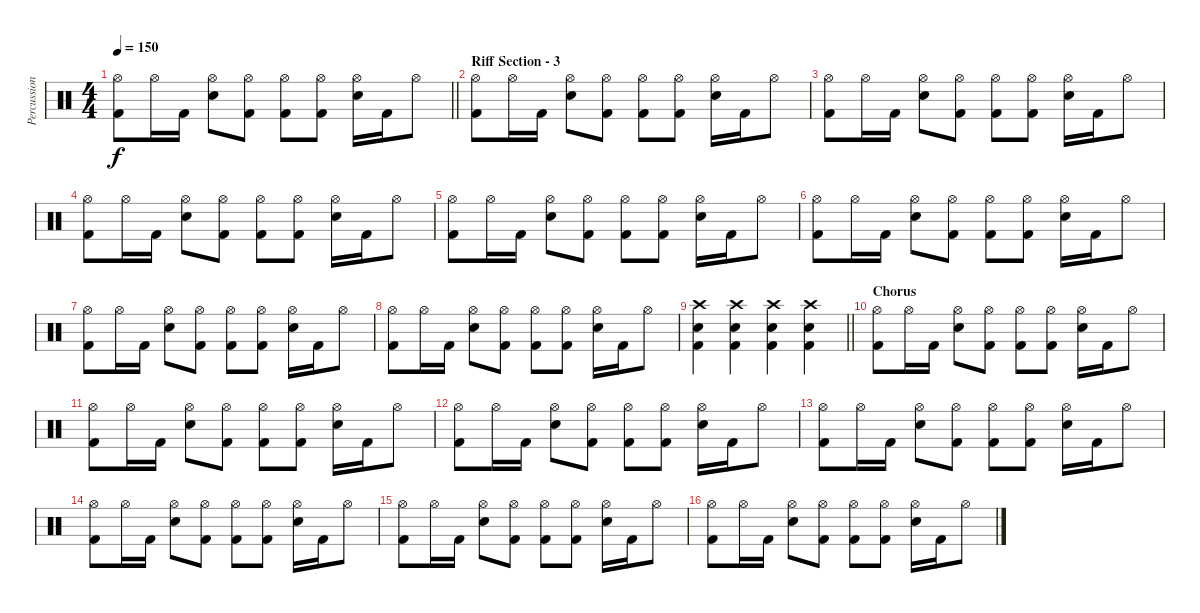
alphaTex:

\track ("Percussion" "Percussion") {instrument percussion}
\staff {score}
\articulation defaults
\ts (4 4)
\tempo 150
\clef neutral
\barLineRight lightlight
\ks c
("Hi-Hat (open)" "Kick (hit) 2").8{dy f} "Hi-Hat (open)".16 "Kick (hit) 2".16 ("Hi-Hat (open)" "Snare (hit) 2").8 ("Hi-Hat (open)" "Kick (hit) 2").8 ("Hi-Hat (open)" "Kick (hit) 2").8 ("Hi-Hat (open)" "Kick (hit) 2").8 ("Hi-Hat (open)" "Snare (hit) 2").16 "Kick (hit) 2".16 "Hi-Hat (open)".8 |
\section ("" "Riff Section - 3")
("Hi-Hat (open)" "Kick (hit) 2").8 "Hi-Hat (open)".16 "Kick (hit) 2".16 ("Hi-Hat (open)" "Snare (hit) 2").8 ("Hi-Hat (open)" "Kick (hit) 2").8 ("Hi-Hat (open)" "Kick (hit) 2").8 ("Hi-Hat (open)" "Kick (hit) 2").8 ("Hi-Hat (open)" "Snare (hit) 2").16 "Kick (hit) 2".16 "Hi-Hat (open)".8 |
("Hi-Hat (open)" "Kick (hit) 2").8 "Hi-Hat (open)".16 "Kick (hit) 2".16 ("Hi-Hat (open)" "Snare (hit) 2").8 ("Hi-Hat (open)" "Kick (hit) 2").8 ("Hi-Hat (open)" "Kick (hit) 2").8 ("Hi-Hat (open)" "Kick (hit) 2").8 ("Hi-Hat (open)" "Snare (hit) 2").16 "Kick (hit) 2".16 "Hi-Hat (open)".8 |
("Hi-Hat (open)" "Kick (hit) 2").8 "Hi-Hat (open)".16 "Kick (hit) 2".16 ("Hi-Hat (open)" "Snare (hit) 2").8 ("Hi-Hat (open)" "Kick (hit) 2").8 ("Hi-Hat (open)" "Kick (hit) 2").8 ("Hi-Hat (open)" "Kick (hit) 2").8 ("Hi-Hat (open)" "Snare (hit) 2").16 "Kick (hit) 2".16 "Hi-Hat (open)".8 |
("Hi-Hat (open)" "Kick (hit) 2").8 "Hi-Hat (open)".16 "Kick (hit) 2".16 ("Hi-Hat (open)" "Snare (hit) 2").8 ("Hi-Hat (open)" "Kick (hit) 2").8 ("Hi-Hat (open)" "Kick (hit) 2").8 ("Hi-Hat (open)" "Kick (hit) 2").8 ("Hi-Hat (open)" "Snare (hit) 2").16 "Kick (hit) 2".16 "Hi-Hat (open)".8 |
("Hi-Hat (open)" "Kick (hit) 2").8 "Hi-Hat (open)".16 "Kick (hit) 2".16 ("Hi-Hat (open)" "Snare (hit) 2").8 ("Hi-Hat (open)" "Kick (hit) 2").8 ("Hi-Hat (open)" "Kick (hit) 2").8 ("Hi-Hat (open)" "Kick (hit) 2").8 ("Hi-Hat (open)" "Snare (hit) 2").16 "Kick (hit) 2".16 "Hi-Hat (open)".8 |
("Hi-Hat (open)" "Kick (hit) 2").8 "Hi-Hat (open)".16 "Kick (hit) 2".16 ("Hi-Hat (open)" "Snare (hit) 2").8 ("Hi-Hat (open)" "Kick (hit) 2").8 ("Hi-Hat (open)" "Kick (hit) 2").8 ("Hi-Hat (open)" "Kick (hit) 2").8 ("Hi-Hat (open)" "Snare (hit) 2").16 "Kick (hit) 2".16 "Hi-Hat (open)".8 |
("Hi-Hat (open)" "Kick (hit) 2").8 "Hi-Hat (open)".16 "Kick (hit) 2".16 ("Hi-Hat (open)" "Snare (hit) 2").8 ("Hi-Hat (open)" "Kick (hit) 2").8 ("Hi-Hat (open)" "Kick (hit) 2").8 ("Hi-Hat (open)" "Kick (hit) 2").8 ("Hi-Hat (open)" "Snare (hit) 2").16 "Kick (hit) 2".16 "Hi-Hat (open)".8 |
\barLineRight lightlight
("Crash high (hit)" "Snare (hit) 2" "Kick (hit) 2").4 ("Crash high (hit)" "Snare (hit) 2" "Kick (hit) 2").4 ("Crash high (hit)" "Snare (hit) 2" "Kick (hit) 2").4 ("Crash high (hit)" "Snare (hit) 2" "Kick (hit) 2").4 |
\section ("" "Chorus")
("Hi-Hat (open)" "Kick (hit) 2").8 "Hi-Hat (open)".16 "Kick (hit) 2".16 ("Hi-Hat (open)" "Snare (hit) 2").8 ("Hi-Hat (open)" "Kick (hit) 2").8 ("Hi-Hat (open)" "Kick (hit) 2").8 ("Hi-Hat (open)" "Kick (hit) 2").8 ("Hi-Hat (open)" "Snare (hit) 2").16 "Kick (hit) 2".16 "Hi-Hat (open)".8 |
("Hi-Hat (open)" "Kick (hit) 2").8 "Hi-Hat (open)".16 "Kick (hit) 2".16 ("Hi-Hat (open)" "Snare (hit) 2").8 ("Hi-Hat (open)" "Kick (hit) 2").8 ("Hi-Hat (open)" "Kick (hit) 2").8 ("Hi-Hat (open)" "Kick (hit) 2").8 ("Hi-Hat (open)" "Snare (hit) 2").16 "Kick (hit) 2".16 "Hi-Hat (open)".8 |
("Hi-Hat (open)" "Kick (hit) 2").8 "Hi-Hat (open)".16 "Kick (hit) 2".16 ("Hi-Hat (open)" "Snare (hit) 2").8 ("Hi-Hat (open)" "Kick (hit) 2").8 ("Hi-Hat (open)" "Kick (hit) 2").8 ("Hi-Hat (open)" "Kick (hit) 2").8 ("Hi-Hat (open)" "Snare (hit) 2").16 "Kick (hit) 2".16 "Hi-Hat (open)".8 |
("Hi-Hat (open)" "Kick (hit) 2").8 "Hi-Hat (open)".16 "Kick (hit) 2".16 ("Hi-Hat (open)" "Snare (hit) 2").8 ("Hi-Hat (open)" "Kick (hit) 2").8 ("Hi-Hat (open)" "Kick (hit) 2").8 ("Hi-Hat (open)" "Kick (hit) 2").8 ("Hi-Hat (open)" "Snare (hit) 2").16 "Kick (hit) 2".16 "Hi-Hat (open)".8 |
("Hi-Hat (open)" "Kick (hit) 2").8 "Hi-Hat (open)".16 "Kick (hit) 2".16 ("Hi-Hat (open)" "Snare (hit) 2").8 ("Hi-Hat (open)" "Kick (hit) 2").8 ("Hi-Hat (open)" "Kick (hit) 2").8 ("Hi-Hat (open)" "Kick (hit) 2").8 ("Hi-Hat (open)" "Snare (hit) 2").16 "Kick (hit) 2".16 "Hi-Hat (open)".8 |
("Hi-Hat (open)" "Kick (hit) 2").8 "Hi-Hat (open)".16 "Kick (hit) 2".16 ("Hi-Hat (open)" "Snare (hit) 2").8 ("Hi-Hat (open)" "Kick (hit) 2").8 ("Hi-Hat (open)" "Kick (hit) 2").8 ("Hi-Hat (open)" "Kick (hit) 2").8 ("Hi-Hat (open)" "Snare (hit) 2").16 "Kick (hit) 2".16 "Hi-Hat (open)".8 |
("Hi-Hat (open)" "Kick (hit) 2").8 "Hi-Hat (open)".16 "Kick (hit) 2".16 ("Hi-Hat (open)" "Snare (hit) 2").8 ("Hi-Hat (open)" "Kick (hit) 2").8 ("Hi-Hat (open)" "Kick (hit) 2").8 ("Hi-Hat (open)" "Kick (hit) 2").8 ("Hi-Hat (open)" "Snare (hit) 2").16 "Kick (hit) 2".16 "Hi-Hat (open)".8
